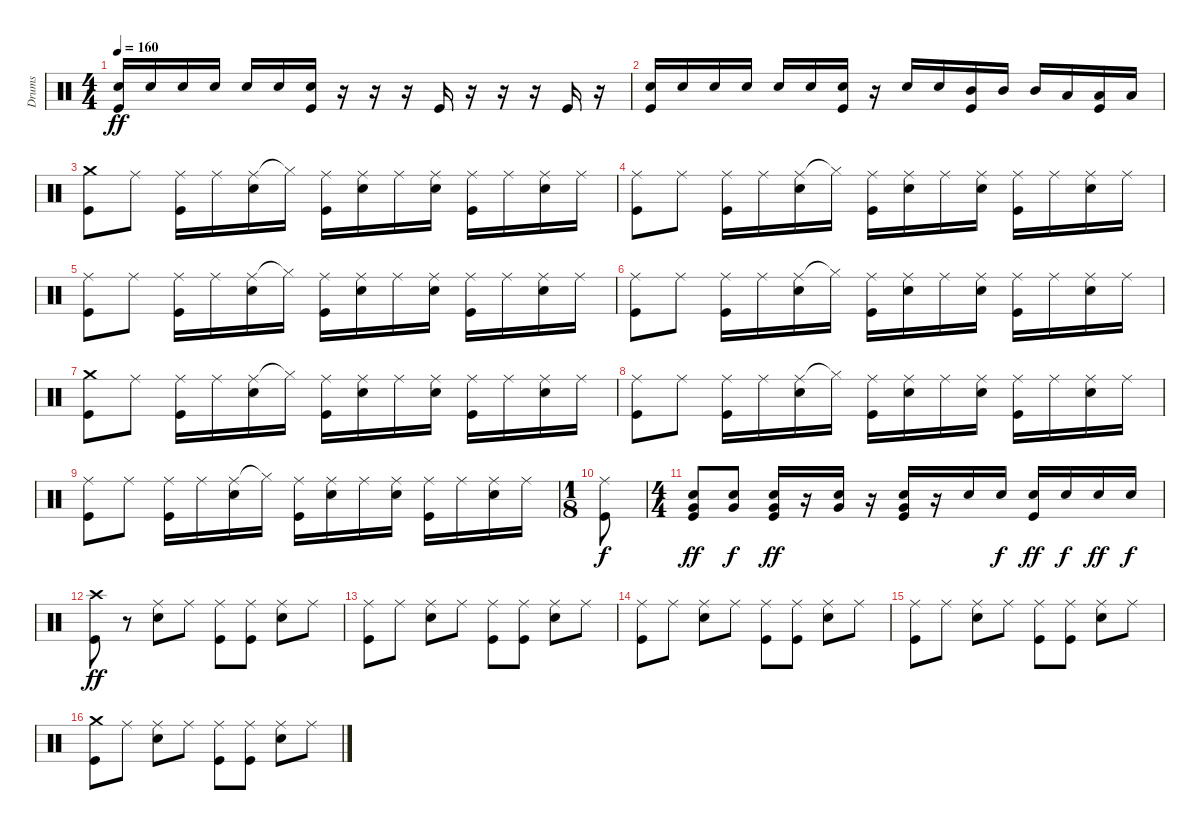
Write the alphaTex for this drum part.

\track ("Drums" "Drums") {instrument percussion}
\staff {score}
\articulation defaults
\ts (4 4)
\tempo 160
\clef neutral
\ks c
("Electric Snare (hit)" "Kick (hit)").16{dy ff} "Electric Snare (hit)".16 "Electric Snare (hit)".16 "Electric Snare (hit)".16 "Electric Snare (hit)".16 "Electric Snare (hit)".16 ("Electric Snare (hit)" "Kick (hit)").16 r.16 r.16 r.16 "Kick (hit)".16 r.16 r.16 r.16 "Kick (hit)".16 r.16 |
("Electric Snare (hit)" "Kick (hit)").16 "Electric Snare (hit)".16 "Electric Snare (hit)".16 "Electric Snare (hit)".16 "Electric Snare (hit)".16 "Electric Snare (hit)".16 ("Electric Snare (hit)" "Kick (hit)").16 r.16 "Electric Snare (hit)".16 "Electric Snare (hit)".16 ("Mid Tom (hit)" "Kick (hit)").16 "Mid Tom (hit)".16 "Mid Tom (hit)".16 "Low Tom (hit)".16 ("Low Tom (hit)" "Kick (hit)").16 "Low Tom (hit)".16 |
("Crash medium (hit)" "Kick (hit)").8 "Ride (middle)".8 ("Ride (middle)" "Kick (hit)").16 "Ride (middle)".16 ("Ride (middle)" "Electric Snare (hit)").16 "Hi-Hat (closed)"{t}.16 ("Ride (middle)" "Kick (hit)").16 ("Ride (middle)" "Electric Snare (hit)").16 "Ride (middle)".16 ("Ride (middle)" "Electric Snare (hit)").16 ("Ride (middle)" "Kick (hit)").16 "Ride (middle)".16 ("Ride (middle)" "Electric Snare (hit)").16 "Ride (middle)".16 |
("Ride (middle)" "Kick (hit)").8 "Ride (middle)".8 ("Ride (middle)" "Kick (hit)").16 "Ride (middle)".16 ("Ride (middle)" "Electric Snare (hit)").16 "Hi-Hat (closed)"{t}.16 ("Ride (middle)" "Kick (hit)").16 ("Ride (middle)" "Electric Snare (hit)").16 "Ride (middle)".16 ("Ride (middle)" "Electric Snare (hit)").16 ("Ride (middle)" "Kick (hit)").16 "Ride (middle)".16 ("Ride (middle)" "Electric Snare (hit)").16 "Ride (middle)".16 |
("Ride (middle)" "Kick (hit)").8 "Ride (middle)".8 ("Ride (middle)" "Kick (hit)").16 "Ride (middle)".16 ("Ride (middle)" "Electric Snare (hit)").16 "Hi-Hat (closed)"{t}.16 ("Ride (middle)" "Kick (hit)").16 ("Ride (middle)" "Electric Snare (hit)").16 "Ride (middle)".16 ("Ride (middle)" "Electric Snare (hit)").16 ("Ride (middle)" "Kick (hit)").16 "Ride (middle)".16 ("Ride (middle)" "Electric Snare (hit)").16 "Ride (middle)".16 |
("Ride (middle)" "Kick (hit)").8 "Ride (middle)".8 ("Ride (middle)" "Kick (hit)").16 "Ride (middle)".16 ("Ride (middle)" "Electric Snare (hit)").16 "Hi-Hat (closed)"{t}.16 ("Ride (middle)" "Kick (hit)").16 ("Ride (middle)" "Electric Snare (hit)").16 "Ride (middle)".16 ("Ride (middle)" "Electric Snare (hit)").16 ("Ride (middle)" "Kick (hit)").16 "Ride (middle)".16 ("Ride (middle)" "Electric Snare (hit)").16 "Ride (middle)".16 |
("Crash medium (hit)" "Kick (hit)").8 "Ride (middle)".8 ("Ride (middle)" "Kick (hit)").16 "Ride (middle)".16 ("Ride (middle)" "Electric Snare (hit)").16 "Hi-Hat (closed)"{t}.16 ("Ride (middle)" "Kick (hit)").16 ("Ride (middle)" "Electric Snare (hit)").16 "Ride (middle)".16 ("Ride (middle)" "Electric Snare (hit)").16 ("Ride (middle)" "Kick (hit)").16 "Ride (middle)".16 ("Ride (middle)" "Electric Snare (hit)").16 "Ride (middle)".16 |
("Ride (middle)" "Kick (hit)").8 "Ride (middle)".8 ("Ride (middle)" "Kick (hit)").16 "Ride (middle)".16 ("Ride (middle)" "Electric Snare (hit)").16 "Hi-Hat (closed)"{t}.16 ("Ride (middle)" "Kick (hit)").16 ("Ride (middle)" "Electric Snare (hit)").16 "Ride (middle)".16 ("Ride (middle)" "Electric Snare (hit)").16 ("Ride (middle)" "Kick (hit)").16 "Ride (middle)".16 ("Ride (middle)" "Electric Snare (hit)").16 "Ride (middle)".16 |
("Ride (middle)" "Kick (hit)").8 "Ride (middle)".8 ("Ride (middle)" "Kick (hit)").16 "Ride (middle)".16 ("Ride (middle)" "Electric Snare (hit)").16 "Hi-Hat (closed)"{t}.16 ("Ride (middle)" "Kick (hit)").16 ("Ride (middle)" "Electric Snare (hit)").16 "Ride (middle)".16 ("Ride (middle)" "Electric Snare (hit)").16 ("Ride (middle)" "Kick (hit)").16 "Ride (middle)".16 ("Ride (middle)" "Electric Snare (hit)").16 "Ride (middle)".16 |
\ts (1 8)
("Ride (middle)" "Kick (hit)").8{dy f} |
\ts (4 4)
("Very Low Tom (hit)" "Electric Snare (hit)" "Kick (hit)").8{dy ff} ("Very Low Tom (hit)" "Electric Snare (hit)").8{dy f} ("Very Low Tom (hit)" "Electric Snare (hit)" "Kick (hit)").16{dy ff} r.16 ("Very Low Tom (hit)" "Electric Snare (hit)").16 r.16 ("Very Low Tom (hit)" "Electric Snare (hit)" "Kick (hit)").16 r.16 "Electric Snare (hit)".16 "Electric Snare (hit)".16{dy f} ("Electric Snare (hit)" "Kick (hit)").16{dy ff} "Electric Snare (hit)".16{dy f} "Electric Snare (hit)".16{dy ff} "Electric Snare (hit)".16{dy f} |
("Crash high (hit)" "Kick (hit)").8{dy ff} r.8 ("Ride (middle)" "Electric Snare (hit)").8 "Ride (middle)".8 ("Ride (middle)" "Kick (hit)").8 ("Ride (middle)" "Kick (hit)").8 ("Ride (middle)" "Electric Snare (hit)").8 "Ride (middle)".8 |
("Ride (middle)" "Kick (hit)").8 "Ride (middle)".8 ("Ride (middle)" "Electric Snare (hit)").8 "Ride (middle)".8 ("Ride (middle)" "Kick (hit)").8 ("Ride (middle)" "Kick (hit)").8 ("Ride (middle)" "Electric Snare (hit)").8 "Ride (middle)".8 |
("Ride (middle)" "Kick (hit)").8 "Ride (middle)".8 ("Ride (middle)" "Electric Snare (hit)").8 "Ride (middle)".8 ("Ride (middle)" "Kick (hit)").8 ("Ride (middle)" "Kick (hit)").8 ("Ride (middle)" "Electric Snare (hit)").8 "Ride (middle)".8 |
("Ride (middle)" "Kick (hit)").8 "Ride (middle)".8 ("Ride (middle)" "Electric Snare (hit)").8 "Ride (middle)".8 ("Ride (middle)" "Kick (hit)").8 ("Ride (middle)" "Kick (hit)").8 ("Ride (middle)" "Electric Snare (hit)").8 "Ride (middle)".8 |
("Crash medium (hit)" "Kick (hit)").8 "Ride (middle)".8 ("Ride (middle)" "Electric Snare (hit)").8 "Ride (middle)".8 ("Ride (middle)" "Kick (hit)").8 ("Ride (middle)" "Kick (hit)").8 ("Ride (middle)" "Electric Snare (hit)").8 "Ride (middle)".8
